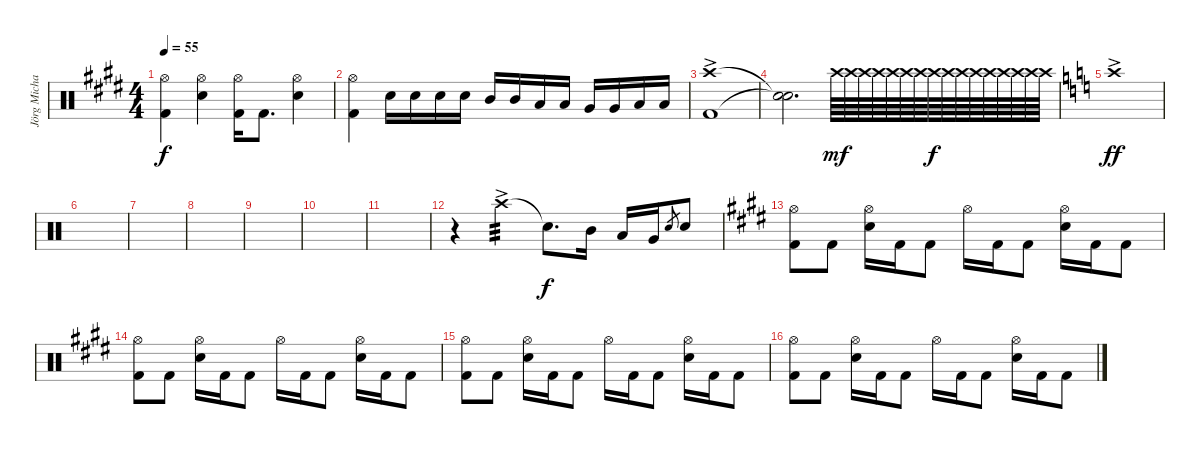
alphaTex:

\track ("Jörg Michael" "Jörg Micha") {instrument percussion}
\staff {score}
\articulation defaults
\ts (4 4)
\tempo 55
\clef neutral
\ks e
("Hi-Hat (open)" "Kick (hit) 2").4{dy f} ("Hi-Hat (open)" "Electric Snare (hit)").4 ("Hi-Hat (open)" "Kick (hit) 2").16 "Kick (hit) 2".8{d} ("Hi-Hat (open)" "Electric Snare (hit)").4 |
("Hi-Hat (open)" "Kick (hit) 2").4 "Electric Snare (hit)".16 "Electric Snare (hit)".16 "Electric Snare (hit)".16 "Electric Snare (hit)".16 "Mid Tom (hit)".16 "Mid Tom (hit)".16 "Low Tom (hit)".16 "Low Tom (hit)".16 "Very Low Tom (hit)".16 "Very Low Tom (hit)".16 "Low Floor Tom (hit)".16 "Low Floor Tom (hit)".16 |
("Crash high (hit)"{ac} "Kick (hit) 2"{ac}).1 |
("Snare (hit)"{t} "Snare (hit)"{t}).2{d} "Crash high (hit)".64{dy mf} "Crash high (hit)".64 "Crash high (hit)".64 "Crash high (hit)".64 "Crash high (hit)".64 "Crash high (hit)".64 "Crash high (hit)".64 "Crash high (hit)".64{dy f} "Crash high (hit)".64 "Crash high (hit)".64 "Crash high (hit)".64 "Crash high (hit)".64 "Crash high (hit)".64 "Crash high (hit)".64 "Crash high (hit)".64 "Crash high (hit)".64 |
\ks c "Crash high (hit)"{ac}.1{dy ff}
|
|
|
|
|
|
|
r.4{volume 0} "Crash high (hit)"{ac}.4{tp 3 volume 16} "Snare (hit)"{t}.8{d dy f} "Mid Tom (hit)".16 "Low Tom (hit)".16 "Very Low Tom (hit)".16 "Electric Snare (hit)".8{gr} "Electric Snare (hit)".8 |
\ks e
("Hi-Hat (open)" "Kick (hit) 2").8 "Kick (hit) 2".8 ("Hi-Hat (open)" "Electric Snare (hit)").16 "Kick (hit) 2".16 "Kick (hit) 2".8 "Hi-Hat (open)".16 "Kick (hit) 2".16 "Kick (hit) 2".8 ("Hi-Hat (open)" "Electric Snare (hit)").16 "Kick (hit) 2".16 "Kick (hit) 2".8 |
("Hi-Hat (open)" "Kick (hit) 2").8 "Kick (hit) 2".8 ("Hi-Hat (open)" "Electric Snare (hit)").16 "Kick (hit) 2".16 "Kick (hit) 2".8 "Hi-Hat (open)".16 "Kick (hit) 2".16 "Kick (hit) 2".8 ("Hi-Hat (open)" "Electric Snare (hit)").16 "Kick (hit) 2".16 "Kick (hit) 2".8 |
("Hi-Hat (open)" "Kick (hit) 2").8 "Kick (hit) 2".8 ("Hi-Hat (open)" "Electric Snare (hit)").16 "Kick (hit) 2".16 "Kick (hit) 2".8 "Hi-Hat (open)".16 "Kick (hit) 2".16 "Kick (hit) 2".8 ("Hi-Hat (open)" "Electric Snare (hit)").16 "Kick (hit) 2".16 "Kick (hit) 2".8 |
("Hi-Hat (open)" "Kick (hit) 2").8 "Kick (hit) 2".8 ("Hi-Hat (open)" "Electric Snare (hit)").16 "Kick (hit) 2".16 "Kick (hit) 2".8 "Hi-Hat (open)".16 "Kick (hit) 2".16 "Kick (hit) 2".8 ("Hi-Hat (open)" "Electric Snare (hit)").16 "Kick (hit) 2".16 "Kick (hit) 2".8
